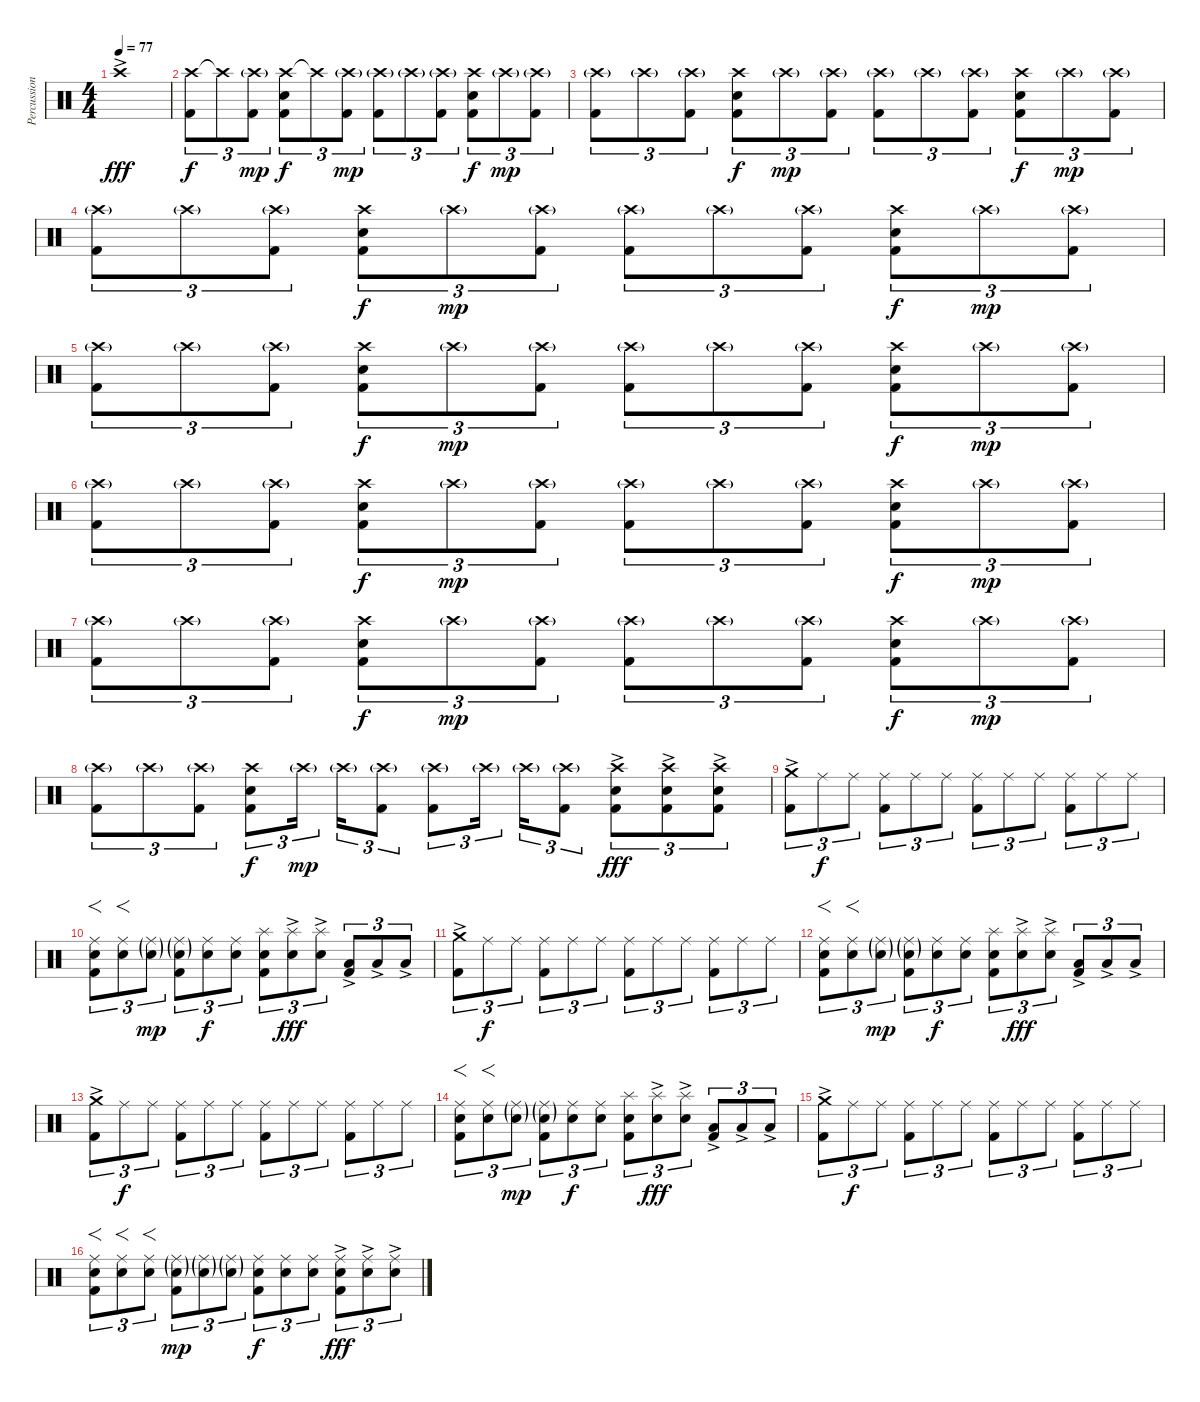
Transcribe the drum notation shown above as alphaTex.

\track ("Percussion" "Percussion") {instrument percussion}
\staff {score}
\articulation defaults
\ts (4 4)
\tempo 77
\clef neutral
\ks c "Crash high (hit)"{ac}.1{dy fff}
|
("Crash high (hit)" "Kick (hit) 2").8{tu (3 2) dy f} "Crash high (hit)"{t}.8{tu (3 2)} ("Crash high (hit)"{g} "Kick (hit) 2").8{tu (3 2) dy mp} ("Crash high (hit)" "Snare (hit) 2" "Kick (hit) 2").8{tu (3 2) dy f} "Crash high (hit)"{t}.8{tu (3 2)} ("Crash high (hit)"{g} "Kick (hit) 2").8{tu (3 2) dy mp} ("Crash high (hit)"{g} "Kick (hit) 2").8{tu (3 2)} "Crash high (hit)"{g}.8{tu (3 2)} ("Crash high (hit)"{g} "Kick (hit) 2").8{tu (3 2)} ("Crash high (hit)" "Snare (hit) 2" "Kick (hit) 2").8{tu (3 2) dy f} "Crash high (hit)"{g}.8{tu (3 2) dy mp} ("Crash high (hit)"{g} "Kick (hit) 2").8{tu (3 2)} |
("Crash high (hit)"{g} "Kick (hit) 2").8{tu (3 2)} "Crash high (hit)"{g}.8{tu (3 2)} ("Crash high (hit)"{g} "Kick (hit) 2").8{tu (3 2)} ("Crash high (hit)" "Snare (hit) 2" "Kick (hit) 2").8{tu (3 2) dy f} "Crash high (hit)"{g}.8{tu (3 2) dy mp} ("Crash high (hit)"{g} "Kick (hit) 2").8{tu (3 2)} ("Crash high (hit)"{g} "Kick (hit) 2").8{tu (3 2)} "Crash high (hit)"{g}.8{tu (3 2)} ("Crash high (hit)"{g} "Kick (hit) 2").8{tu (3 2)} ("Crash high (hit)" "Snare (hit) 2" "Kick (hit) 2").8{tu (3 2) dy f} "Crash high (hit)"{g}.8{tu (3 2) dy mp} ("Crash high (hit)"{g} "Kick (hit) 2").8{tu (3 2)} |
("Crash high (hit)"{g} "Kick (hit) 2").8{tu (3 2)} "Crash high (hit)"{g}.8{tu (3 2)} ("Crash high (hit)"{g} "Kick (hit) 2").8{tu (3 2)} ("Crash high (hit)" "Snare (hit) 2" "Kick (hit) 2").8{tu (3 2) dy f} "Crash high (hit)"{g}.8{tu (3 2) dy mp} ("Crash high (hit)"{g} "Kick (hit) 2").8{tu (3 2)} ("Crash high (hit)"{g} "Kick (hit) 2").8{tu (3 2)} "Crash high (hit)"{g}.8{tu (3 2)} ("Crash high (hit)"{g} "Kick (hit) 2").8{tu (3 2)} ("Crash high (hit)" "Snare (hit) 2" "Kick (hit) 2").8{tu (3 2) dy f} "Crash high (hit)"{g}.8{tu (3 2) dy mp} ("Crash high (hit)"{g} "Kick (hit) 2").8{tu (3 2)} |
("Crash high (hit)"{g} "Kick (hit) 2").8{tu (3 2)} "Crash high (hit)"{g}.8{tu (3 2)} ("Crash high (hit)"{g} "Kick (hit) 2").8{tu (3 2)} ("Crash high (hit)" "Snare (hit) 2" "Kick (hit) 2").8{tu (3 2) dy f} "Crash high (hit)"{g}.8{tu (3 2) dy mp} ("Crash high (hit)"{g} "Kick (hit) 2").8{tu (3 2)} ("Crash high (hit)"{g} "Kick (hit) 2").8{tu (3 2)} "Crash high (hit)"{g}.8{tu (3 2)} ("Crash high (hit)"{g} "Kick (hit) 2").8{tu (3 2)} ("Crash high (hit)" "Snare (hit) 2" "Kick (hit) 2").8{tu (3 2) dy f} "Crash high (hit)"{g}.8{tu (3 2) dy mp} ("Crash high (hit)"{g} "Kick (hit) 2").8{tu (3 2)} |
("Crash high (hit)"{g} "Kick (hit) 2").8{tu (3 2)} "Crash high (hit)"{g}.8{tu (3 2)} ("Crash high (hit)"{g} "Kick (hit) 2").8{tu (3 2)} ("Crash high (hit)" "Snare (hit) 2" "Kick (hit) 2").8{tu (3 2) dy f} "Crash high (hit)"{g}.8{tu (3 2) dy mp} ("Crash high (hit)"{g} "Kick (hit) 2").8{tu (3 2)} ("Crash high (hit)"{g} "Kick (hit) 2").8{tu (3 2)} "Crash high (hit)"{g}.8{tu (3 2)} ("Crash high (hit)"{g} "Kick (hit) 2").8{tu (3 2)} ("Crash high (hit)" "Snare (hit) 2" "Kick (hit) 2").8{tu (3 2) dy f} "Crash high (hit)"{g}.8{tu (3 2) dy mp} ("Crash high (hit)"{g} "Kick (hit) 2").8{tu (3 2)} |
("Crash high (hit)"{g} "Kick (hit) 2").8{tu (3 2)} "Crash high (hit)"{g}.8{tu (3 2)} ("Crash high (hit)"{g} "Kick (hit) 2").8{tu (3 2)} ("Crash high (hit)" "Snare (hit) 2" "Kick (hit) 2").8{tu (3 2) dy f} "Crash high (hit)"{g}.8{tu (3 2) dy mp} ("Crash high (hit)"{g} "Kick (hit) 2").8{tu (3 2)} ("Crash high (hit)"{g} "Kick (hit) 2").8{tu (3 2)} "Crash high (hit)"{g}.8{tu (3 2)} ("Crash high (hit)"{g} "Kick (hit) 2").8{tu (3 2)} ("Crash high (hit)" "Snare (hit) 2" "Kick (hit) 2").8{tu (3 2) dy f} "Crash high (hit)"{g}.8{tu (3 2) dy mp} ("Crash high (hit)"{g} "Kick (hit) 2").8{tu (3 2)} |
("Crash high (hit)"{g} "Kick (hit) 2").8{tu (3 2)} "Crash high (hit)"{g}.8{tu (3 2)} ("Crash high (hit)"{g} "Kick (hit) 2").8{tu (3 2)} ("Crash high (hit)" "Snare (hit) 2" "Kick (hit) 2").8{tu (3 2) dy f} "Crash high (hit)"{g}.16{tu (3 2) dy mp} "Crash high (hit)"{g}.16{tu (3 2)} ("Crash high (hit)"{g} "Kick (hit) 2").8{tu (3 2)} ("Crash high (hit)"{g} "Kick (hit) 2").8{tu (3 2)} "Crash high (hit)"{g}.16{tu (3 2)} "Crash high (hit)"{g}.16{tu (3 2)} ("Crash high (hit)"{g} "Kick (hit) 2").8{tu (3 2)} ("Crash high (hit)"{ac} "Snare (hit) 2"{ac} "Kick (hit) 2").8{tu (3 2) dy fff} ("Crash high (hit)"{ac} "Snare (hit) 2"{ac} "Kick (hit) 2").8{tu (3 2)} ("Crash high (hit)"{ac} "Snare (hit) 2"{ac} "Kick (hit) 2").8{tu (3 2)} |
("Crash medium (hit)"{ac} "Kick (hit) 2").8{tu (3 2)} "Ride (middle)".8{tu (3 2) dy f} "Ride (middle)".8{tu (3 2)} ("Ride (middle)" "Kick (hit) 2").8{tu (3 2)} "Ride (middle)".8{tu (3 2)} "Ride (middle)".8{tu (3 2)} ("Ride (middle)" "Kick (hit) 2").8{tu (3 2)} "Ride (middle)".8{tu (3 2)} "Ride (middle)".8{tu (3 2)} ("Ride (middle)" "Kick (hit) 2").8{tu (3 2)} "Ride (middle)".8{tu (3 2)} "Ride (middle)".8{tu (3 2)} |
("Ride (middle)" "Snare (hit) 2" "Kick (hit) 2").8{f tu (3 2)} ("Ride (middle)" "Snare (hit) 2").8{f tu (3 2)} ("Ride (middle)"{g} "Snare (hit) 2"{g}).8{tu (3 2) dy mp} ("Ride (middle)"{g} "Snare (hit) 2"{g} "Kick (hit) 2").8{tu (3 2)} ("Ride (middle)" "Snare (hit) 2").8{tu (3 2) dy f} ("Ride (middle)" "Snare (hit) 2").8{tu (3 2)} ("Splash (hit)" "Snare (hit) 2" "Kick (hit) 2").8{tu (3 2)} ("Splash (hit)"{ac} "Snare (hit) 2"{ac}).8{tu (3 2) dy fff} ("Splash (hit)"{ac} "Snare (hit) 2"{ac}).8{tu (3 2)} ("Low Tom (hit)"{ac} "Kick (hit) 2").8{tu (3 2)} "Low Tom (hit)"{ac}.8{tu (3 2)} "Low Tom (hit)"{ac}.8{tu (3 2)} |
("Crash medium (hit)"{ac} "Kick (hit) 2").8{tu (3 2)} "Ride (middle)".8{tu (3 2) dy f} "Ride (middle)".8{tu (3 2)} ("Ride (middle)" "Kick (hit) 2").8{tu (3 2)} "Ride (middle)".8{tu (3 2)} "Ride (middle)".8{tu (3 2)} ("Ride (middle)" "Kick (hit) 2").8{tu (3 2)} "Ride (middle)".8{tu (3 2)} "Ride (middle)".8{tu (3 2)} ("Ride (middle)" "Kick (hit) 2").8{tu (3 2)} "Ride (middle)".8{tu (3 2)} "Ride (middle)".8{tu (3 2)} |
("Ride (middle)" "Snare (hit) 2" "Kick (hit) 2").8{f tu (3 2)} ("Ride (middle)" "Snare (hit) 2").8{f tu (3 2)} ("Ride (middle)"{g} "Snare (hit) 2"{g}).8{tu (3 2) dy mp} ("Ride (middle)"{g} "Snare (hit) 2"{g} "Kick (hit) 2").8{tu (3 2)} ("Ride (middle)" "Snare (hit) 2").8{tu (3 2) dy f} ("Ride (middle)" "Snare (hit) 2").8{tu (3 2)} ("Splash (hit)" "Snare (hit) 2" "Kick (hit) 2").8{tu (3 2)} ("Splash (hit)"{ac} "Snare (hit) 2"{ac}).8{tu (3 2) dy fff} ("Splash (hit)"{ac} "Snare (hit) 2"{ac}).8{tu (3 2)} ("Low Tom (hit)"{ac} "Kick (hit) 2").8{tu (3 2)} "Low Tom (hit)"{ac}.8{tu (3 2)} "Low Tom (hit)"{ac}.8{tu (3 2)} |
("Crash medium (hit)"{ac} "Kick (hit) 2").8{tu (3 2)} "Ride (middle)".8{tu (3 2) dy f} "Ride (middle)".8{tu (3 2)} ("Ride (middle)" "Kick (hit) 2").8{tu (3 2)} "Ride (middle)".8{tu (3 2)} "Ride (middle)".8{tu (3 2)} ("Ride (middle)" "Kick (hit) 2").8{tu (3 2)} "Ride (middle)".8{tu (3 2)} "Ride (middle)".8{tu (3 2)} ("Ride (middle)" "Kick (hit) 2").8{tu (3 2)} "Ride (middle)".8{tu (3 2)} "Ride (middle)".8{tu (3 2)} |
("Ride (middle)" "Snare (hit) 2" "Kick (hit) 2").8{f tu (3 2)} ("Ride (middle)" "Snare (hit) 2").8{f tu (3 2)} ("Ride (middle)"{g} "Snare (hit) 2"{g}).8{tu (3 2) dy mp} ("Ride (middle)"{g} "Snare (hit) 2"{g} "Kick (hit) 2").8{tu (3 2)} ("Ride (middle)" "Snare (hit) 2").8{tu (3 2) dy f} ("Ride (middle)" "Snare (hit) 2").8{tu (3 2)} ("Splash (hit)" "Snare (hit) 2" "Kick (hit) 2").8{tu (3 2)} ("Splash (hit)"{ac} "Snare (hit) 2"{ac}).8{tu (3 2) dy fff} ("Splash (hit)"{ac} "Snare (hit) 2"{ac}).8{tu (3 2)} ("Low Tom (hit)"{ac} "Kick (hit) 2").8{tu (3 2)} "Low Tom (hit)"{ac}.8{tu (3 2)} "Low Tom (hit)"{ac}.8{tu (3 2)} |
("Crash medium (hit)"{ac} "Kick (hit) 2").8{tu (3 2)} "Ride (middle)".8{tu (3 2) dy f} "Ride (middle)".8{tu (3 2)} ("Ride (middle)" "Kick (hit) 2").8{tu (3 2)} "Ride (middle)".8{tu (3 2)} "Ride (middle)".8{tu (3 2)} ("Ride (middle)" "Kick (hit) 2").8{tu (3 2)} "Ride (middle)".8{tu (3 2)} "Ride (middle)".8{tu (3 2)} ("Ride (middle)" "Kick (hit) 2").8{tu (3 2)} "Ride (middle)".8{tu (3 2)} "Ride (middle)".8{tu (3 2)} |
("Ride (middle)" "Snare (hit) 2" "Kick (hit) 2").8{f tu (3 2)} ("Ride (middle)" "Snare (hit) 2").8{f tu (3 2)} ("Ride (middle)" "Snare (hit) 2").8{f tu (3 2)} ("Ride (middle)"{g} "Snare (hit) 2"{g} "Kick (hit) 2").8{tu (3 2) dy mp} ("Ride (middle)"{g} "Snare (hit) 2"{g}).8{tu (3 2)} ("Ride (middle)"{g} "Snare (hit) 2"{g}).8{tu (3 2)} ("Ride (middle)" "Snare (hit) 2" "Kick (hit) 2").8{tu (3 2) dy f} ("Ride (middle)" "Snare (hit) 2").8{tu (3 2)} ("Ride (middle)" "Snare (hit) 2").8{tu (3 2)} ("Ride (middle)"{ac} "Snare (hit) 2"{ac} "Kick (hit) 2").8{tu (3 2) dy fff} ("Ride (middle)"{ac} "Snare (hit) 2"{ac}).8{tu (3 2)} ("Ride (middle)"{ac} "Snare (hit) 2"{ac}).8{tu (3 2)}
